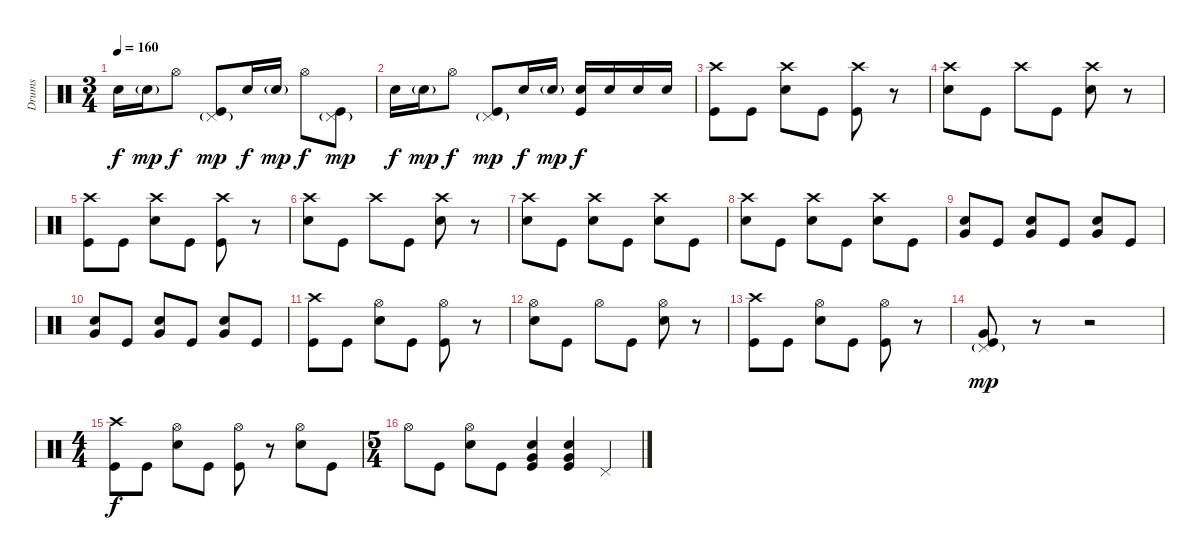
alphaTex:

\track ("Drums" "Drums") {instrument percussion}
\staff {score}
\articulation defaults
\ts (3 4)
\tempo 160
\clef neutral
\ks c "Snare (hit) 2".16{dy f} "Snare (hit) 2"{g}.16{dy mp} "Hi-Hat (open)".8{dy f}
("Kick (hit)" "Pedal Hi-Hat (hit)"{g}).8{dy mp} "Snare (hit) 2".16{dy f} "Snare (hit) 2"{g}.16{dy mp} "Hi-Hat (open)".8{dy f} ("Kick (hit)" "Pedal Hi-Hat (hit)"{g}).8{dy mp} |
"Snare (hit) 2".16{dy f} "Snare (hit) 2"{g}.16{dy mp} "Hi-Hat (open)".8{dy f} ("Kick (hit)" "Pedal Hi-Hat (hit)"{g}).8{dy mp} "Snare (hit) 2".16{dy f} "Snare (hit) 2"{g}.16{dy mp} ("Kick (hit)" "Snare (hit) 2").16{dy f} "Snare (hit) 2".16 "Snare (hit) 2".16 "Snare (hit) 2".16 |
("Kick (hit)" "Crash high (hit)").8 "Kick (hit)".8 ("Snare (hit) 2" "Crash high (hit)").8 "Kick (hit)".8 ("Kick (hit)" "Crash high (hit)").8 r.8 |
("Snare (hit) 2" "Crash high (hit)").8 "Kick (hit)".8 "Crash high (hit)".8 "Kick (hit)".8 ("Snare (hit) 2" "Crash high (hit)").8 r.8 |
("Kick (hit)" "Crash high (hit)").8 "Kick (hit)".8 ("Snare (hit) 2" "Crash high (hit)").8 "Kick (hit)".8 ("Kick (hit)" "Crash high (hit)").8 r.8 |
("Snare (hit) 2" "Crash high (hit)").8 "Kick (hit)".8 "Crash high (hit)".8 "Kick (hit)".8 ("Snare (hit) 2" "Crash high (hit)").8 r.8 |
("Snare (hit) 2" "Crash high (hit)").8 "Kick (hit)".8 ("Snare (hit) 2" "Crash high (hit)").8 "Kick (hit)".8 ("Snare (hit) 2" "Crash high (hit)").8 "Kick (hit)".8 |
("Snare (hit) 2" "Crash high (hit)").8 "Kick (hit)".8 ("Snare (hit) 2" "Crash high (hit)").8 "Kick (hit)".8 ("Snare (hit) 2" "Crash high (hit)").8 "Kick (hit)".8 |
("Snare (hit) 2" "Very Low Tom (hit)").8 "Kick (hit)".8 ("Snare (hit) 2" "Very Low Tom (hit)").8 "Kick (hit)".8 ("Snare (hit) 2" "Very Low Tom (hit)").8 "Kick (hit)".8 |
("Snare (hit) 2" "Very Low Tom (hit)").8 "Kick (hit)".8 ("Snare (hit) 2" "Very Low Tom (hit)").8 "Kick (hit)".8 ("Snare (hit) 2" "Very Low Tom (hit)").8 "Kick (hit)".8 |
("Kick (hit)" "Crash high (hit)").8 "Kick (hit)".8 ("Snare (hit) 2" "Hi-Hat (open)").8 "Kick (hit)".8 ("Kick (hit)" "Hi-Hat (open)").8 r.8 |
("Snare (hit) 2" "Hi-Hat (open)").8 "Kick (hit)".8 "Hi-Hat (open)".8 "Kick (hit)".8 ("Snare (hit) 2" "Hi-Hat (open)").8 r.8 |
("Kick (hit)" "Crash high (hit)").8 "Kick (hit)".8 ("Snare (hit) 2" "Hi-Hat (open)").8 "Kick (hit)".8 ("Kick (hit)" "Hi-Hat (open)").8 r.8 |
("Kick (hit)" "Very Low Tom (hit)" "Pedal Hi-Hat (hit)"{g}).8{dy mp} r.8 r.2 |
\ts (4 4)
("Kick (hit)" "Crash high (hit)").8{dy f} "Kick (hit)".8 ("Snare (hit) 2" "Hi-Hat (open)").8 "Kick (hit)".8 ("Kick (hit)" "Hi-Hat (open)").8 r.8 ("Snare (hit) 2" "Hi-Hat (open)").8 "Kick (hit)".8 |
\ts (5 4)
"Hi-Hat (open)".8 "Kick (hit)".8 ("Snare (hit) 2" "Hi-Hat (open)").8 "Kick (hit)".8 ("Kick (hit)" "Snare (hit) 2" "Very Low Tom (hit)").4 ("Kick (hit)" "Snare (hit) 2" "Very Low Tom (hit)").4 "Pedal Hi-Hat (hit)".4
